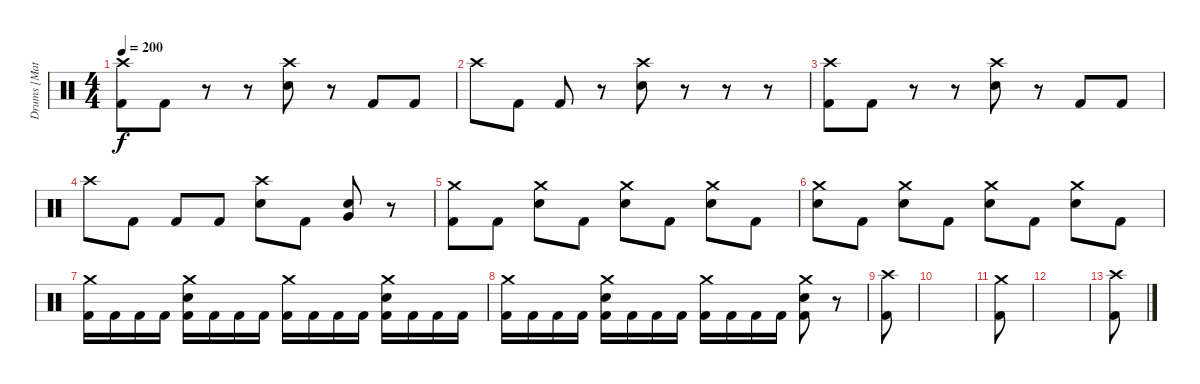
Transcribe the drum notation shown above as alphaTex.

\track ("Drums [Matt]" "Drums [Mat") {instrument percussion}
\staff {score}
\articulation defaults
\ts (4 4)
\tempo 200
\clef neutral
\ks c
("Crash high (hit)" "Kick (hit) 2").8{dy f} "Kick (hit) 2".8 r.8 r.8 ("Crash high (hit)" "Electric Snare (hit)").8 r.8 "Kick (hit) 2".8 "Kick (hit) 2".8 |
"Crash high (hit)".8 "Kick (hit) 2".8 "Kick (hit) 2".8 r.8 ("Crash high (hit)" "Electric Snare (hit)").8 r.8 r.8 r.8 |
("Crash high (hit)" "Kick (hit) 2").8 "Kick (hit) 2".8 r.8 r.8 ("Crash high (hit)" "Electric Snare (hit)").8 r.8 "Kick (hit) 2".8 "Kick (hit) 2".8 |
"Crash high (hit)".8 "Kick (hit) 2".8 "Kick (hit) 2".8 "Kick (hit) 2".8 ("Crash high (hit)" "Electric Snare (hit)").8 "Kick (hit) 2".8 ("Very Low Tom (hit)" "Electric Snare (hit)").8 r.8 |
("Crash medium (hit)" "Kick (hit) 2").8 "Kick (hit) 2".8 ("Crash medium (hit)" "Electric Snare (hit)").8 "Kick (hit) 2".8 ("Crash medium (hit)" "Electric Snare (hit)").8 "Kick (hit) 2".8 ("Crash medium (hit)" "Electric Snare (hit)").8 "Kick (hit) 2".8 |
("Crash medium (hit)" "Electric Snare (hit)").8 "Kick (hit) 2".8 ("Crash medium (hit)" "Electric Snare (hit)").8 "Kick (hit) 2".8 ("Crash medium (hit)" "Electric Snare (hit)").8 "Kick (hit) 2".8 ("Crash medium (hit)" "Electric Snare (hit)").8 "Kick (hit) 2".8 |
("Crash medium (hit)" "Kick (hit) 2").16 "Kick (hit) 2".16 "Kick (hit) 2".16 "Kick (hit) 2".16 ("Crash medium (hit)" "Electric Snare (hit)" "Kick (hit) 2").16 "Kick (hit) 2".16 "Kick (hit) 2".16 "Kick (hit) 2".16 ("Crash medium (hit)" "Kick (hit) 2").16 "Kick (hit) 2".16 "Kick (hit) 2".16 "Kick (hit) 2".16 ("Crash medium (hit)" "Electric Snare (hit)" "Kick (hit) 2").16 "Kick (hit) 2".16 "Kick (hit) 2".16 "Kick (hit) 2".16 |
("Crash medium (hit)" "Kick (hit) 2").16 "Kick (hit) 2".16 "Kick (hit) 2".16 "Kick (hit) 2".16 ("Crash medium (hit)" "Electric Snare (hit)" "Kick (hit) 2").16 "Kick (hit) 2".16 "Kick (hit) 2".16 "Kick (hit) 2".16 ("Crash medium (hit)" "Kick (hit) 2").16 "Kick (hit) 2".16 "Kick (hit) 2".16 "Kick (hit) 2".16 ("Crash medium (hit)" "Electric Snare (hit)" "Kick (hit) 2").8 r.8 |
("Crash high (hit)" "Kick (hit) 2").8 |
|
("Crash medium (hit)" "Kick (hit) 2").8 |
|
("Crash high (hit)" "Kick (hit) 2").8
